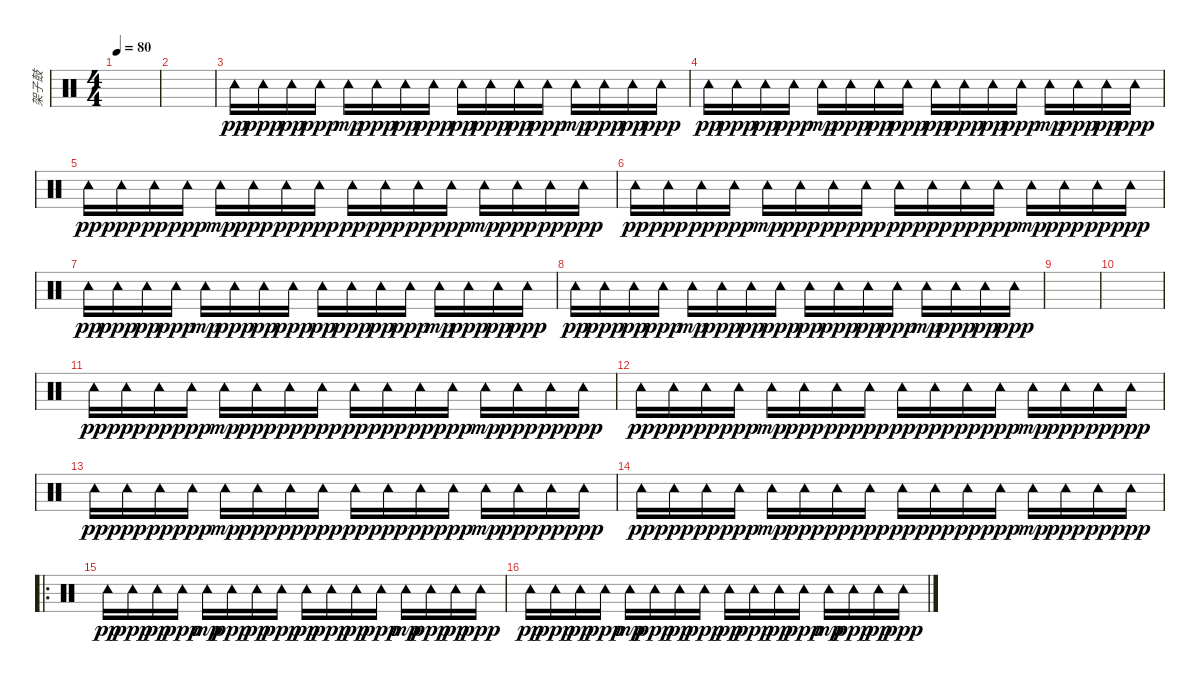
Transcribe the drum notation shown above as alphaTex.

\track ("架子鼓" "架子鼓") {instrument percussion}
\staff {score}
\articulation defaults
\ts (4 4)
\tempo 80
\clef neutral
\ks c
|
|
"Tambourine (hit)".16{dy pp} "Tambourine (hit)".16{dy ppp} "Tambourine (hit)".16{dy pp} "Tambourine (hit)".16{dy ppp} "Tambourine (hit)".16{dy mp} "Tambourine (hit)".16{dy ppp} "Tambourine (hit)".16{dy pp} "Tambourine (hit)".16{dy ppp} "Tambourine (hit)".16{dy pp} "Tambourine (hit)".16{dy ppp} "Tambourine (hit)".16{dy pp} "Tambourine (hit)".16{dy ppp} "Tambourine (hit)".16{dy mp} "Tambourine (hit)".16{dy ppp} "Tambourine (hit)".16{dy pp} "Tambourine (hit)".16{dy ppp} |
"Tambourine (hit)".16{dy pp} "Tambourine (hit)".16{dy ppp} "Tambourine (hit)".16{dy pp} "Tambourine (hit)".16{dy ppp} "Tambourine (hit)".16{dy mp} "Tambourine (hit)".16{dy ppp} "Tambourine (hit)".16{dy pp} "Tambourine (hit)".16{dy ppp} "Tambourine (hit)".16{dy pp} "Tambourine (hit)".16{dy ppp} "Tambourine (hit)".16{dy pp} "Tambourine (hit)".16{dy ppp} "Tambourine (hit)".16{dy mp} "Tambourine (hit)".16{dy ppp} "Tambourine (hit)".16{dy pp} "Tambourine (hit)".16{dy ppp} |
"Tambourine (hit)".16{dy pp} "Tambourine (hit)".16{dy ppp} "Tambourine (hit)".16{dy pp} "Tambourine (hit)".16{dy ppp} "Tambourine (hit)".16{dy mp} "Tambourine (hit)".16{dy ppp} "Tambourine (hit)".16{dy pp} "Tambourine (hit)".16{dy ppp} "Tambourine (hit)".16{dy pp} "Tambourine (hit)".16{dy ppp} "Tambourine (hit)".16{dy pp} "Tambourine (hit)".16{dy ppp} "Tambourine (hit)".16{dy mp} "Tambourine (hit)".16{dy ppp} "Tambourine (hit)".16{dy pp} "Tambourine (hit)".16{dy ppp} |
"Tambourine (hit)".16{dy pp} "Tambourine (hit)".16{dy ppp} "Tambourine (hit)".16{dy pp} "Tambourine (hit)".16{dy ppp} "Tambourine (hit)".16{dy mp} "Tambourine (hit)".16{dy ppp} "Tambourine (hit)".16{dy pp} "Tambourine (hit)".16{dy ppp} "Tambourine (hit)".16{dy pp} "Tambourine (hit)".16{dy ppp} "Tambourine (hit)".16{dy pp} "Tambourine (hit)".16{dy ppp} "Tambourine (hit)".16{dy mp} "Tambourine (hit)".16{dy ppp} "Tambourine (hit)".16{dy pp} "Tambourine (hit)".16{dy ppp} |
"Tambourine (hit)".16{dy pp} "Tambourine (hit)".16{dy ppp} "Tambourine (hit)".16{dy pp} "Tambourine (hit)".16{dy ppp} "Tambourine (hit)".16{dy mp} "Tambourine (hit)".16{dy ppp} "Tambourine (hit)".16{dy pp} "Tambourine (hit)".16{dy ppp} "Tambourine (hit)".16{dy pp} "Tambourine (hit)".16{dy ppp} "Tambourine (hit)".16{dy pp} "Tambourine (hit)".16{dy ppp} "Tambourine (hit)".16{dy mp} "Tambourine (hit)".16{dy ppp} "Tambourine (hit)".16{dy pp} "Tambourine (hit)".16{dy ppp} |
"Tambourine (hit)".16{dy pp} "Tambourine (hit)".16{dy ppp} "Tambourine (hit)".16{dy pp} "Tambourine (hit)".16{dy ppp} "Tambourine (hit)".16{dy mp} "Tambourine (hit)".16{dy ppp} "Tambourine (hit)".16{dy pp} "Tambourine (hit)".16{dy ppp} "Tambourine (hit)".16{dy pp} "Tambourine (hit)".16{dy ppp} "Tambourine (hit)".16{dy pp} "Tambourine (hit)".16{dy ppp} "Tambourine (hit)".16{dy mp} "Tambourine (hit)".16{dy ppp} "Tambourine (hit)".16{dy pp} "Tambourine (hit)".16{dy ppp} |
|
|
"Tambourine (hit)".16{dy pp} "Tambourine (hit)".16{dy ppp} "Tambourine (hit)".16{dy pp} "Tambourine (hit)".16{dy ppp} "Tambourine (hit)".16{dy mp} "Tambourine (hit)".16{dy ppp} "Tambourine (hit)".16{dy pp} "Tambourine (hit)".16{dy ppp} "Tambourine (hit)".16{dy pp} "Tambourine (hit)".16{dy ppp} "Tambourine (hit)".16{dy pp} "Tambourine (hit)".16{dy ppp} "Tambourine (hit)".16{dy mp} "Tambourine (hit)".16{dy ppp} "Tambourine (hit)".16{dy pp} "Tambourine (hit)".16{dy ppp} |
"Tambourine (hit)".16{dy pp} "Tambourine (hit)".16{dy ppp} "Tambourine (hit)".16{dy pp} "Tambourine (hit)".16{dy ppp} "Tambourine (hit)".16{dy mp} "Tambourine (hit)".16{dy ppp} "Tambourine (hit)".16{dy pp} "Tambourine (hit)".16{dy ppp} "Tambourine (hit)".16{dy pp} "Tambourine (hit)".16{dy ppp} "Tambourine (hit)".16{dy pp} "Tambourine (hit)".16{dy ppp} "Tambourine (hit)".16{dy mp} "Tambourine (hit)".16{dy ppp} "Tambourine (hit)".16{dy pp} "Tambourine (hit)".16{dy ppp} |
"Tambourine (hit)".16{dy pp} "Tambourine (hit)".16{dy ppp} "Tambourine (hit)".16{dy pp} "Tambourine (hit)".16{dy ppp} "Tambourine (hit)".16{dy mp} "Tambourine (hit)".16{dy ppp} "Tambourine (hit)".16{dy pp} "Tambourine (hit)".16{dy ppp} "Tambourine (hit)".16{dy pp} "Tambourine (hit)".16{dy ppp} "Tambourine (hit)".16{dy pp} "Tambourine (hit)".16{dy ppp} "Tambourine (hit)".16{dy mp} "Tambourine (hit)".16{dy ppp} "Tambourine (hit)".16{dy pp} "Tambourine (hit)".16{dy ppp} |
"Tambourine (hit)".16{dy pp} "Tambourine (hit)".16{dy ppp} "Tambourine (hit)".16{dy pp} "Tambourine (hit)".16{dy ppp} "Tambourine (hit)".16{dy mp} "Tambourine (hit)".16{dy ppp} "Tambourine (hit)".16{dy pp} "Tambourine (hit)".16{dy ppp} "Tambourine (hit)".16{dy pp} "Tambourine (hit)".16{dy ppp} "Tambourine (hit)".16{dy pp} "Tambourine (hit)".16{dy ppp} "Tambourine (hit)".16{dy mp} "Tambourine (hit)".16{dy ppp} "Tambourine (hit)".16{dy pp} "Tambourine (hit)".16{dy ppp} |
\ro "Tambourine (hit)".16{dy pp} "Tambourine (hit)".16{dy ppp} "Tambourine (hit)".16{dy pp} "Tambourine (hit)".16{dy ppp} "Tambourine (hit)".16{dy mp} "Tambourine (hit)".16{dy ppp} "Tambourine (hit)".16{dy pp} "Tambourine (hit)".16{dy ppp} "Tambourine (hit)".16{dy pp} "Tambourine (hit)".16{dy ppp} "Tambourine (hit)".16{dy pp} "Tambourine (hit)".16{dy ppp} "Tambourine (hit)".16{dy mp} "Tambourine (hit)".16{dy ppp} "Tambourine (hit)".16{dy pp} "Tambourine (hit)".16{dy ppp}
|
"Tambourine (hit)".16{dy pp} "Tambourine (hit)".16{dy ppp} "Tambourine (hit)".16{dy pp} "Tambourine (hit)".16{dy ppp} "Tambourine (hit)".16{dy mp} "Tambourine (hit)".16{dy ppp} "Tambourine (hit)".16{dy pp} "Tambourine (hit)".16{dy ppp} "Tambourine (hit)".16{dy pp} "Tambourine (hit)".16{dy ppp} "Tambourine (hit)".16{dy pp} "Tambourine (hit)".16{dy ppp} "Tambourine (hit)".16{dy mp} "Tambourine (hit)".16{dy ppp} "Tambourine (hit)".16{dy pp} "Tambourine (hit)".16{dy ppp}
